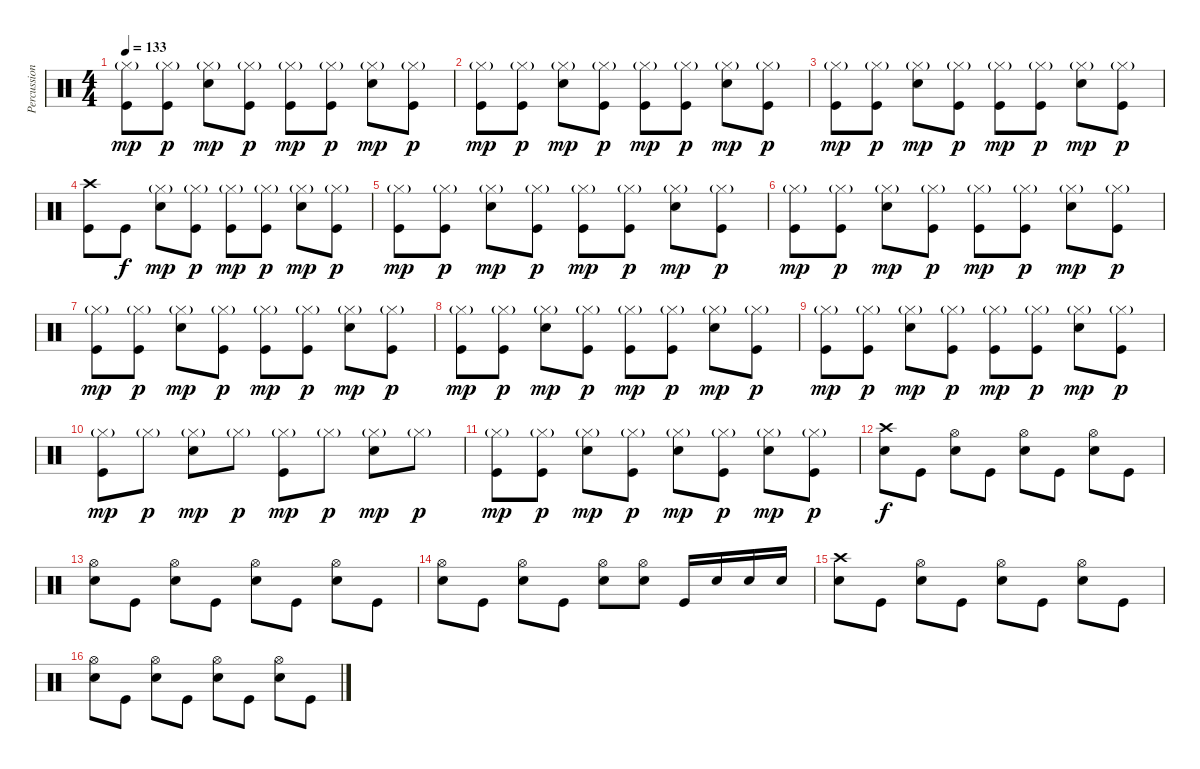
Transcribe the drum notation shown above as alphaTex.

\track ("Percussion" "Percussion") {instrument percussion}
\staff {score}
\articulation defaults
\ts (4 4)
\tempo 133
\clef neutral
\ks c
("Hi-Hat (closed)"{g} "Kick (hit)").8{dy mp} ("Hi-Hat (closed)"{g} "Kick (hit)").8{dy p} ("Hi-Hat (closed)"{g} "Electric Snare (hit)").8{dy mp} ("Hi-Hat (closed)"{g} "Kick (hit)").8{dy p} ("Hi-Hat (closed)"{g} "Kick (hit)").8{dy mp} ("Hi-Hat (closed)"{g} "Kick (hit)").8{dy p} ("Hi-Hat (closed)"{g} "Electric Snare (hit)").8{dy mp} ("Hi-Hat (closed)"{g} "Kick (hit)").8{dy p} |
("Hi-Hat (closed)"{g} "Kick (hit)").8{dy mp} ("Hi-Hat (closed)"{g} "Kick (hit)").8{dy p} ("Hi-Hat (closed)"{g} "Electric Snare (hit)").8{dy mp} ("Hi-Hat (closed)"{g} "Kick (hit)").8{dy p} ("Hi-Hat (closed)"{g} "Kick (hit)").8{dy mp} ("Hi-Hat (closed)"{g} "Kick (hit)").8{dy p} ("Hi-Hat (closed)"{g} "Electric Snare (hit)").8{dy mp} ("Hi-Hat (closed)"{g} "Kick (hit)").8{dy p} |
("Hi-Hat (closed)"{g} "Kick (hit)").8{dy mp} ("Hi-Hat (closed)"{g} "Kick (hit)").8{dy p} ("Hi-Hat (closed)"{g} "Electric Snare (hit)").8{dy mp} ("Hi-Hat (closed)"{g} "Kick (hit)").8{dy p} ("Hi-Hat (closed)"{g} "Kick (hit)").8{dy mp} ("Hi-Hat (closed)"{g} "Kick (hit)").8{dy p} ("Hi-Hat (closed)"{g} "Electric Snare (hit)").8{dy mp} ("Hi-Hat (closed)"{g} "Kick (hit)").8{dy p} |
("Crash high (hit)" "Kick (hit)").8 "Kick (hit)".8{dy f} ("Hi-Hat (closed)"{g} "Electric Snare (hit)").8{dy mp} ("Hi-Hat (closed)"{g} "Kick (hit)").8{dy p} ("Hi-Hat (closed)"{g} "Kick (hit)").8{dy mp} ("Hi-Hat (closed)"{g} "Kick (hit)").8{dy p} ("Hi-Hat (closed)"{g} "Electric Snare (hit)").8{dy mp} ("Hi-Hat (closed)"{g} "Kick (hit)").8{dy p} |
("Hi-Hat (closed)"{g} "Kick (hit)").8{dy mp} ("Hi-Hat (closed)"{g} "Kick (hit)").8{dy p} ("Hi-Hat (closed)"{g} "Electric Snare (hit)").8{dy mp} ("Hi-Hat (closed)"{g} "Kick (hit)").8{dy p} ("Hi-Hat (closed)"{g} "Kick (hit)").8{dy mp} ("Hi-Hat (closed)"{g} "Kick (hit)").8{dy p} ("Hi-Hat (closed)"{g} "Electric Snare (hit)").8{dy mp} ("Hi-Hat (closed)"{g} "Kick (hit)").8{dy p} |
("Hi-Hat (closed)"{g} "Kick (hit)").8{dy mp} ("Hi-Hat (closed)"{g} "Kick (hit)").8{dy p} ("Hi-Hat (closed)"{g} "Electric Snare (hit)").8{dy mp} ("Hi-Hat (closed)"{g} "Kick (hit)").8{dy p} ("Hi-Hat (closed)"{g} "Kick (hit)").8{dy mp} ("Hi-Hat (closed)"{g} "Kick (hit)").8{dy p} ("Hi-Hat (closed)"{g} "Electric Snare (hit)").8{dy mp} ("Hi-Hat (closed)"{g} "Kick (hit)").8{dy p} |
("Hi-Hat (closed)"{g} "Kick (hit)").8{dy mp} ("Hi-Hat (closed)"{g} "Kick (hit)").8{dy p} ("Hi-Hat (closed)"{g} "Electric Snare (hit)").8{dy mp} ("Hi-Hat (closed)"{g} "Kick (hit)").8{dy p} ("Hi-Hat (closed)"{g} "Kick (hit)").8{dy mp} ("Hi-Hat (closed)"{g} "Kick (hit)").8{dy p} ("Hi-Hat (closed)"{g} "Electric Snare (hit)").8{dy mp} ("Hi-Hat (closed)"{g} "Kick (hit)").8{dy p} |
("Hi-Hat (closed)"{g} "Kick (hit)").8{dy mp} ("Hi-Hat (closed)"{g} "Kick (hit)").8{dy p} ("Hi-Hat (closed)"{g} "Electric Snare (hit)").8{dy mp} ("Hi-Hat (closed)"{g} "Kick (hit)").8{dy p} ("Hi-Hat (closed)"{g} "Kick (hit)").8{dy mp} ("Hi-Hat (closed)"{g} "Kick (hit)").8{dy p} ("Hi-Hat (closed)"{g} "Electric Snare (hit)").8{dy mp} ("Hi-Hat (closed)"{g} "Kick (hit)").8{dy p} |
("Hi-Hat (closed)"{g} "Kick (hit)").8{dy mp} ("Hi-Hat (closed)"{g} "Kick (hit)").8{dy p} ("Hi-Hat (closed)"{g} "Electric Snare (hit)").8{dy mp} ("Hi-Hat (closed)"{g} "Kick (hit)").8{dy p} ("Hi-Hat (closed)"{g} "Kick (hit)").8{dy mp} ("Hi-Hat (closed)"{g} "Kick (hit)").8{dy p} ("Hi-Hat (closed)"{g} "Electric Snare (hit)").8{dy mp} ("Hi-Hat (closed)"{g} "Kick (hit)").8{dy p} |
("Hi-Hat (closed)"{g} "Kick (hit)").8{dy mp} "Hi-Hat (closed)"{g}.8{dy p} ("Hi-Hat (closed)"{g} "Electric Snare (hit)").8{dy mp} "Hi-Hat (closed)"{g}.8{dy p} ("Hi-Hat (closed)"{g} "Kick (hit)").8{dy mp} "Hi-Hat (closed)"{g}.8{dy p} ("Hi-Hat (closed)"{g} "Electric Snare (hit)").8{dy mp} "Hi-Hat (closed)"{g}.8{dy p} |
("Hi-Hat (closed)"{g} "Kick (hit)").8{dy mp} ("Hi-Hat (closed)"{g} "Kick (hit)").8{dy p} ("Hi-Hat (closed)"{g} "Electric Snare (hit)").8{dy mp} ("Hi-Hat (closed)"{g} "Kick (hit)").8{dy p} ("Hi-Hat (closed)"{g} "Electric Snare (hit)").8{dy mp} ("Hi-Hat (closed)"{g} "Kick (hit)").8{dy p} ("Hi-Hat (closed)"{g} "Electric Snare (hit)").8{dy mp} ("Hi-Hat (closed)"{g} "Kick (hit)").8{dy p} |
("Crash high (hit)" "Electric Snare (hit)").8{dy f} "Kick (hit)".8 ("Hi-Hat (open)" "Electric Snare (hit)").8 "Kick (hit)".8 ("Hi-Hat (open)" "Electric Snare (hit)").8 "Kick (hit)".8 ("Hi-Hat (open)" "Electric Snare (hit)").8 "Kick (hit)".8 |
("Hi-Hat (open)" "Electric Snare (hit)").8 "Kick (hit)".8 ("Hi-Hat (open)" "Electric Snare (hit)").8 "Kick (hit)".8 ("Hi-Hat (open)" "Electric Snare (hit)").8 "Kick (hit)".8 ("Hi-Hat (open)" "Electric Snare (hit)").8 "Kick (hit)".8 |
("Hi-Hat (open)" "Electric Snare (hit)").8 "Kick (hit)".8 ("Hi-Hat (open)" "Electric Snare (hit)").8 "Kick (hit)".8 ("Hi-Hat (open)" "Electric Snare (hit)").8 ("Hi-Hat (open)" "Electric Snare (hit)").8 "Kick (hit)".16 "Electric Snare (hit)".16 "Electric Snare (hit)".16 "Electric Snare (hit)".16 |
("Crash high (hit)" "Electric Snare (hit)").8 "Kick (hit)".8 ("Hi-Hat (open)" "Electric Snare (hit)").8 "Kick (hit)".8 ("Hi-Hat (open)" "Electric Snare (hit)").8 "Kick (hit)".8 ("Hi-Hat (open)" "Electric Snare (hit)").8 "Kick (hit)".8 |
("Hi-Hat (open)" "Electric Snare (hit)").8 "Kick (hit)".8 ("Hi-Hat (open)" "Electric Snare (hit)").8 "Kick (hit)".8 ("Hi-Hat (open)" "Electric Snare (hit)").8 "Kick (hit)".8 ("Hi-Hat (open)" "Electric Snare (hit)").8 "Kick (hit)".8
